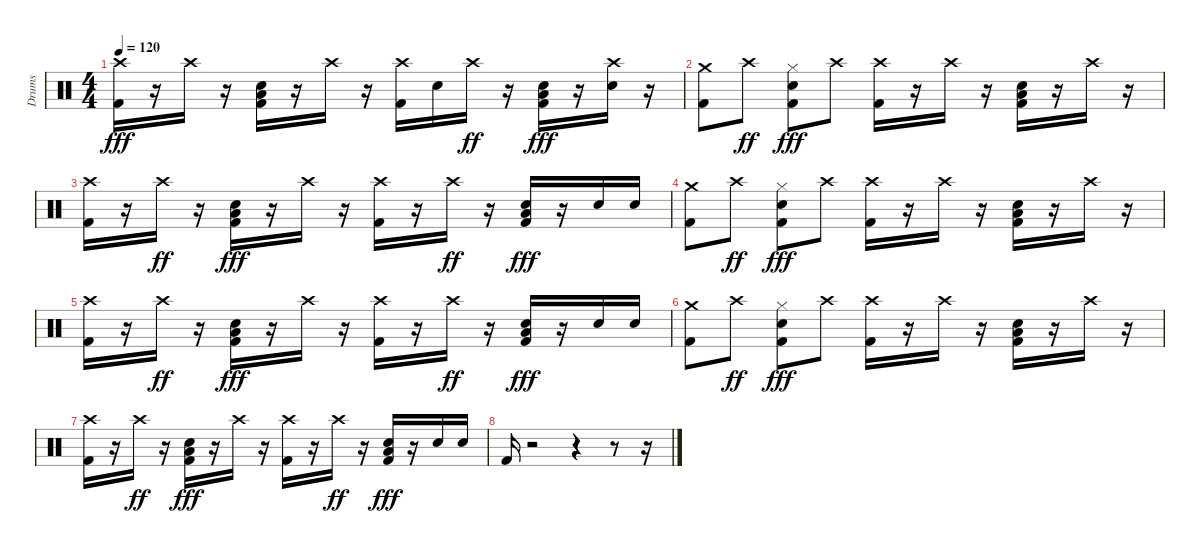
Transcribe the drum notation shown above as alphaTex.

\track ("Drums" "Drums") {instrument percussion}
\staff {score}
\articulation defaults
\ts (4 4)
\tempo 120
\clef neutral
\ks c
("Kick (hit) 2" "Crash high (hit)").16{dy fff} r.16 "Crash high (hit)".16 r.16 ("Kick (hit) 2" "Snare (hit) 2" "Low Floor Tom (hit)").16 r.16 "Crash high (hit)".16 r.16 ("Crash high (hit)" "Kick (hit) 2").16 "Snare (hit) 2".16 "Crash high (hit)".16{dy ff} r.16 ("Kick (hit) 2" "Snare (hit) 2" "Low Floor Tom (hit)").16{dy fff} r.16 ("Crash high (hit)" "Snare (hit) 2").16 r.16 |
("Kick (hit) 2" "Crash medium (hit)").8 "Crash high (hit)".8{dy ff} ("Kick (hit) 2" "Snare (hit) 2" "Hi-Hat (closed)").8{dy fff} "Crash high (hit)".8 ("Crash high (hit)" "Kick (hit) 2").16 r.16 "Crash high (hit)".16 r.16 ("Kick (hit) 2" "Low Floor Tom (hit)" "Snare (hit) 2").16 r.16 "Crash high (hit)".16 r.16 |
("Crash high (hit)" "Kick (hit) 2").16 r.16 "Crash high (hit)".16{dy ff} r.16 ("Kick (hit) 2" "Low Floor Tom (hit)" "Snare (hit) 2").16{dy fff} r.16 "Crash high (hit)".16 r.16 ("Kick (hit) 2" "Crash high (hit)").16 r.16 "Crash high (hit)".16{dy ff} r.16 ("Kick (hit) 2" "Snare (hit) 2" "Low Floor Tom (hit)").16{dy fff} r.16 "Snare (hit) 2".16 "Snare (hit) 2".16 |
("Kick (hit) 2" "Crash medium (hit)").8 "Crash high (hit)".8{dy ff} ("Kick (hit) 2" "Snare (hit) 2" "Hi-Hat (closed)").8{dy fff} "Crash high (hit)".8 ("Crash high (hit)" "Kick (hit) 2").16 r.16 "Crash high (hit)".16 r.16 ("Kick (hit) 2" "Low Floor Tom (hit)" "Snare (hit) 2").16 r.16 "Crash high (hit)".16 r.16 |
("Crash high (hit)" "Kick (hit) 2").16 r.16 "Crash high (hit)".16{dy ff} r.16 ("Kick (hit) 2" "Low Floor Tom (hit)" "Snare (hit) 2").16{dy fff} r.16 "Crash high (hit)".16 r.16 ("Kick (hit) 2" "Crash high (hit)").16 r.16 "Crash high (hit)".16{dy ff} r.16 ("Kick (hit) 2" "Snare (hit) 2" "Low Floor Tom (hit)").16{dy fff} r.16 "Snare (hit) 2".16 "Snare (hit) 2".16 |
("Kick (hit) 2" "Crash medium (hit)").8 "Crash high (hit)".8{dy ff} ("Kick (hit) 2" "Snare (hit) 2" "Hi-Hat (closed)").8{dy fff} "Crash high (hit)".8 ("Crash high (hit)" "Kick (hit) 2").16 r.16 "Crash high (hit)".16 r.16 ("Kick (hit) 2" "Low Floor Tom (hit)" "Snare (hit) 2").16 r.16 "Crash high (hit)".16 r.16 |
("Crash high (hit)" "Kick (hit) 2").16 r.16 "Crash high (hit)".16{dy ff} r.16 ("Kick (hit) 2" "Low Floor Tom (hit)" "Snare (hit) 2").16{dy fff} r.16 "Crash high (hit)".16 r.16 ("Kick (hit) 2" "Crash high (hit)").16 r.16 "Crash high (hit)".16{dy ff} r.16 ("Kick (hit) 2" "Snare (hit) 2" "Low Floor Tom (hit)").16{dy fff} r.16 "Snare (hit) 2".16 "Snare (hit) 2".16 |
"Kick (hit) 2".16 r.2 r.4 r.8 r.16
